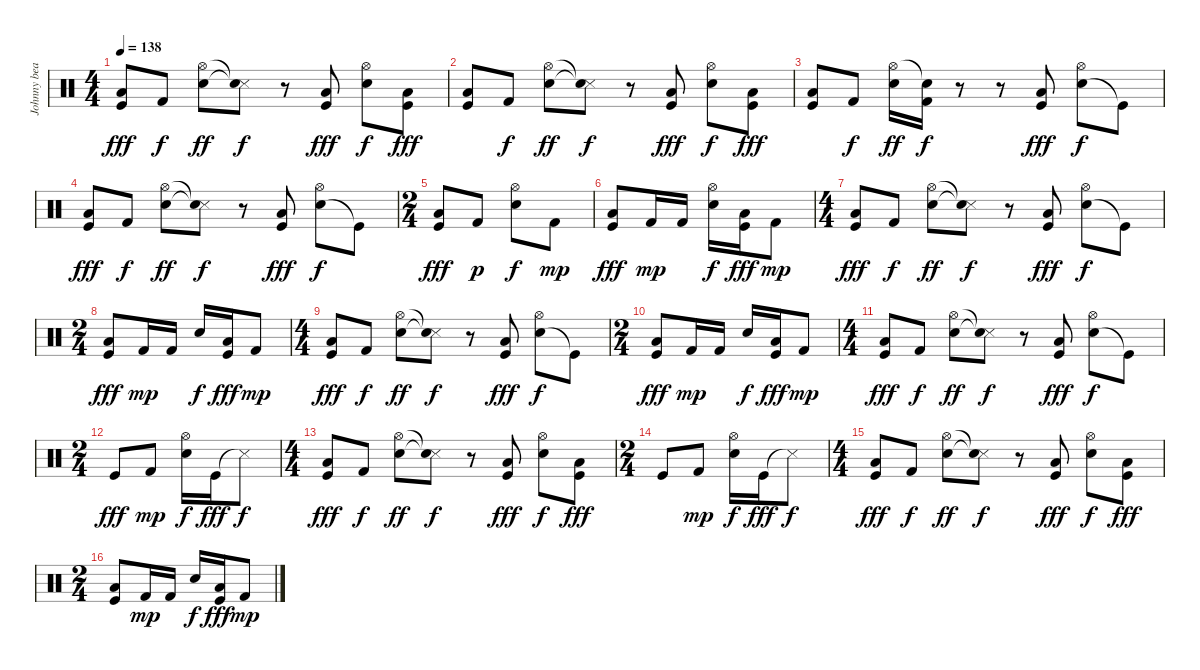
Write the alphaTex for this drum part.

\track ("Johnny beat" "Johnny bea") {instrument percussion}
\staff {score}
\articulation defaults
\ts (4 4)
\tempo 138
\clef neutral
\ks c
("Low Tom (hit)" "Kick (hit)").8{dy fff} "Kick (hit) 2".8{dy f} ("Electric Snare (hit)" "Hi-Hat (open)").8{dy ff} ("Snare (side stick) 3"{t} "Snare (hit)"{t}).8{dy f} r.8 ("Low Tom (hit)" "Kick (hit)").8{dy fff} ("Electric Snare (hit)" "Hi-Hat (open)").8{dy f} ("Low Tom (hit)" "Kick (hit)").8{dy fff} |
("Low Tom (hit)" "Kick (hit)").8 "Kick (hit) 2".8{dy f} ("Electric Snare (hit)" "Hi-Hat (open)").8{dy ff} ("Snare (side stick) 3"{t} "Snare (hit)"{t}).8{dy f} r.8 ("Low Tom (hit)" "Kick (hit)").8{dy fff} ("Electric Snare (hit)" "Hi-Hat (open)").8{dy f} ("Low Tom (hit)" "Kick (hit)").8{dy fff} |
("Low Tom (hit)" "Kick (hit)").8 "Kick (hit) 2".8{dy f} ("Electric Snare (hit)" "Hi-Hat (open)").16{dy ff} ("Kick (hit) 2" "Snare (hit)"{t}).16{dy f} r.8 r.8 ("Low Tom (hit)" "Kick (hit)").8{dy fff} ("Electric Snare (hit)" "Hi-Hat (open)").8{dy f} "Kick (hit)"{t}.8 |
("Low Tom (hit)" "Kick (hit)").8{dy fff} "Kick (hit) 2".8{dy f} ("Electric Snare (hit)" "Hi-Hat (open)").8{dy ff} ("Snare (side stick) 3"{t} "Snare (hit)"{t}).8{dy f} r.8 ("Low Tom (hit)" "Kick (hit)").8{dy fff} ("Electric Snare (hit)" "Hi-Hat (open)").8{dy f} "Kick (hit)"{t}.8 |
\ts (2 4)
("Low Tom (hit)" "Kick (hit)").8{dy fff} "Kick (hit) 2".8{dy p} ("Electric Snare (hit)" "Hi-Hat (open)").8{dy f} "Kick (hit) 2".8{dy mp} |
("Low Tom (hit)" "Kick (hit)").8{dy fff} "Kick (hit) 2".16{dy mp} "Kick (hit) 2".16 ("Electric Snare (hit)" "Hi-Hat (open)").16{dy f} ("Low Tom (hit)" "Kick (hit)").16{dy fff} "Kick (hit) 2".8{dy mp} |
\ts (4 4)
("Low Tom (hit)" "Kick (hit)").8{dy fff} "Kick (hit) 2".8{dy f} ("Electric Snare (hit)" "Hi-Hat (open)").8{dy ff} ("Snare (side stick) 3"{t} "Snare (hit)"{t}).8{dy f} r.8 ("Low Tom (hit)" "Kick (hit)").8{dy fff} ("Electric Snare (hit)" "Hi-Hat (open)").8{dy f} "Kick (hit)"{t}.8 |
\ts (2 4)
("Low Tom (hit)" "Kick (hit)").8{dy fff} "Kick (hit) 2".16{dy mp} "Kick (hit) 2".16 "Electric Snare (hit)".16{dy f} ("Low Tom (hit)" "Kick (hit)").16{dy fff} "Kick (hit) 2".8{dy mp} |
\ts (4 4)
("Low Tom (hit)" "Kick (hit)").8{dy fff} "Kick (hit) 2".8{dy f} ("Electric Snare (hit)" "Hi-Hat (open)").8{dy ff} ("Snare (side stick) 3"{t} "Snare (hit)"{t}).8{dy f} r.8 ("Low Tom (hit)" "Kick (hit)").8{dy fff} ("Electric Snare (hit)" "Hi-Hat (open)").8{dy f} "Kick (hit)"{t}.8 |
\ts (2 4)
("Low Tom (hit)" "Kick (hit)").8{dy fff} "Kick (hit) 2".16{dy mp} "Kick (hit) 2".16 "Electric Snare (hit)".16{dy f} ("Low Tom (hit)" "Kick (hit)").16{dy fff} "Kick (hit) 2".8{dy mp} |
\ts (4 4)
("Low Tom (hit)" "Kick (hit)").8{dy fff} "Kick (hit) 2".8{dy f} ("Electric Snare (hit)" "Hi-Hat (open)").8{dy ff} ("Snare (side stick) 3"{t} "Snare (hit)"{t}).8{dy f} r.8 ("Low Tom (hit)" "Kick (hit)").8{dy fff} ("Electric Snare (hit)" "Hi-Hat (open)").8{dy f} "Kick (hit)"{t}.8 |
\ts (2 4)
"Kick (hit)".8{dy fff} "Kick (hit) 2".8{dy mp} ("Electric Snare (hit)" "Hi-Hat (open)").16{dy f} "Kick (hit)".16{dy fff} "Snare (side stick) 3"{t}.8{dy f} |
\ts (4 4)
("Low Tom (hit)" "Kick (hit)").8{dy fff} "Kick (hit) 2".8{dy f} ("Electric Snare (hit)" "Hi-Hat (open)").8{dy ff} ("Snare (side stick) 3"{t} "Snare (hit)"{t}).8{dy f} r.8 ("Low Tom (hit)" "Kick (hit)").8{dy fff} ("Electric Snare (hit)" "Hi-Hat (open)").8{dy f} ("Low Tom (hit)" "Kick (hit)").8{dy fff} |
\ts (2 4)
"Kick (hit)".8 "Kick (hit) 2".8{dy mp} ("Electric Snare (hit)" "Hi-Hat (open)").16{dy f} "Kick (hit)".16{dy fff} "Snare (side stick) 3"{t}.8{dy f} |
\ts (4 4)
("Low Tom (hit)" "Kick (hit)").8{dy fff} "Kick (hit) 2".8{dy f} ("Electric Snare (hit)" "Hi-Hat (open)").8{dy ff} ("Snare (side stick) 3"{t} "Snare (hit)"{t}).8{dy f} r.8 ("Low Tom (hit)" "Kick (hit)").8{dy fff} ("Electric Snare (hit)" "Hi-Hat (open)").8{dy f} ("Low Tom (hit)" "Kick (hit)").8{dy fff} |
\ts (2 4)
("Low Tom (hit)" "Kick (hit)").8 "Kick (hit) 2".16{dy mp} "Kick (hit) 2".16 "Electric Snare (hit)".16{dy f} ("Low Tom (hit)" "Kick (hit)").16{dy fff} "Kick (hit) 2".8{dy mp}
